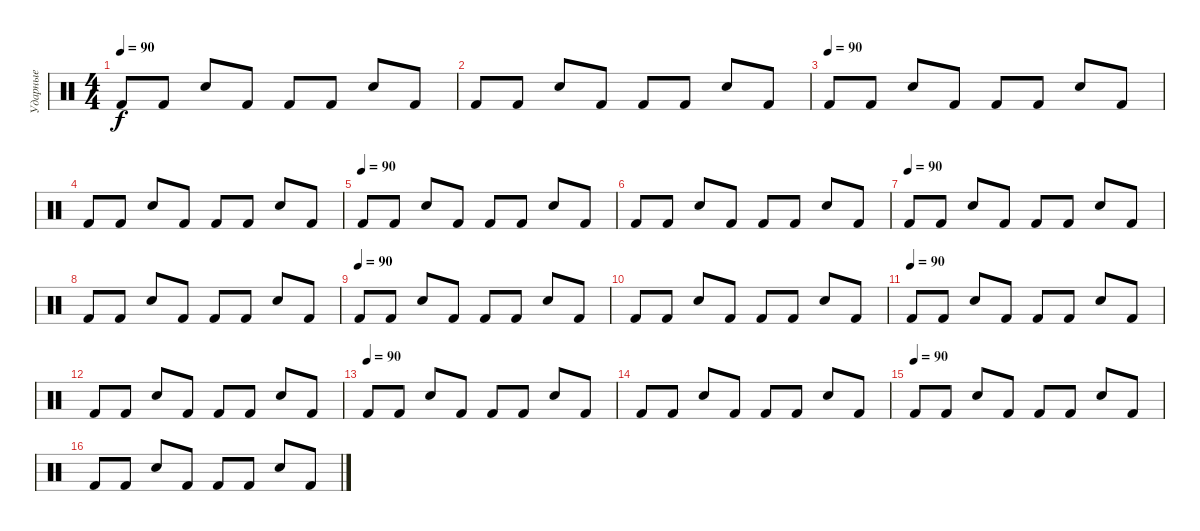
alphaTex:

\track ("Ударные" "Ударные") {instrument percussion}
\staff {score}
\articulation defaults
\ts (4 4)
\tempo 90
\clef neutral
\ks c "Kick (hit) 2".8{dy f} "Kick (hit) 2".8 "Snare (hit) 2".8 "Kick (hit) 2".8 "Kick (hit) 2".8 "Kick (hit) 2".8 "Snare (hit) 2".8 "Kick (hit) 2".8
|
"Kick (hit) 2".8 "Kick (hit) 2".8 "Snare (hit) 2".8 "Kick (hit) 2".8 "Kick (hit) 2".8 "Kick (hit) 2".8 "Snare (hit) 2".8 "Kick (hit) 2".8 |
\tempo (90)
"Kick (hit) 2".8 "Kick (hit) 2".8 "Snare (hit) 2".8 "Kick (hit) 2".8 "Kick (hit) 2".8 "Kick (hit) 2".8 "Snare (hit) 2".8 "Kick (hit) 2".8 |
"Kick (hit) 2".8 "Kick (hit) 2".8 "Snare (hit) 2".8 "Kick (hit) 2".8 "Kick (hit) 2".8 "Kick (hit) 2".8 "Snare (hit) 2".8 "Kick (hit) 2".8 |
\tempo (90)
"Kick (hit) 2".8 "Kick (hit) 2".8 "Snare (hit) 2".8 "Kick (hit) 2".8 "Kick (hit) 2".8 "Kick (hit) 2".8 "Snare (hit) 2".8 "Kick (hit) 2".8 |
"Kick (hit) 2".8 "Kick (hit) 2".8 "Snare (hit) 2".8 "Kick (hit) 2".8 "Kick (hit) 2".8 "Kick (hit) 2".8 "Snare (hit) 2".8 "Kick (hit) 2".8 |
\tempo (90)
"Kick (hit) 2".8 "Kick (hit) 2".8 "Snare (hit) 2".8 "Kick (hit) 2".8 "Kick (hit) 2".8 "Kick (hit) 2".8 "Snare (hit) 2".8 "Kick (hit) 2".8 |
"Kick (hit) 2".8 "Kick (hit) 2".8 "Snare (hit) 2".8 "Kick (hit) 2".8 "Kick (hit) 2".8 "Kick (hit) 2".8 "Snare (hit) 2".8 "Kick (hit) 2".8 |
\tempo (90)
"Kick (hit) 2".8 "Kick (hit) 2".8 "Snare (hit) 2".8 "Kick (hit) 2".8 "Kick (hit) 2".8 "Kick (hit) 2".8 "Snare (hit) 2".8 "Kick (hit) 2".8 |
"Kick (hit) 2".8 "Kick (hit) 2".8 "Snare (hit) 2".8 "Kick (hit) 2".8 "Kick (hit) 2".8 "Kick (hit) 2".8 "Snare (hit) 2".8 "Kick (hit) 2".8 |
\tempo (90)
"Kick (hit) 2".8 "Kick (hit) 2".8 "Snare (hit) 2".8 "Kick (hit) 2".8 "Kick (hit) 2".8 "Kick (hit) 2".8 "Snare (hit) 2".8 "Kick (hit) 2".8 |
"Kick (hit) 2".8 "Kick (hit) 2".8 "Snare (hit) 2".8 "Kick (hit) 2".8 "Kick (hit) 2".8 "Kick (hit) 2".8 "Snare (hit) 2".8 "Kick (hit) 2".8 |
\tempo (90)
"Kick (hit) 2".8 "Kick (hit) 2".8 "Snare (hit) 2".8 "Kick (hit) 2".8 "Kick (hit) 2".8 "Kick (hit) 2".8 "Snare (hit) 2".8 "Kick (hit) 2".8 |
"Kick (hit) 2".8 "Kick (hit) 2".8 "Snare (hit) 2".8 "Kick (hit) 2".8 "Kick (hit) 2".8 "Kick (hit) 2".8 "Snare (hit) 2".8 "Kick (hit) 2".8 |
\tempo (90)
"Kick (hit) 2".8 "Kick (hit) 2".8 "Snare (hit) 2".8 "Kick (hit) 2".8 "Kick (hit) 2".8 "Kick (hit) 2".8 "Snare (hit) 2".8 "Kick (hit) 2".8 |
"Kick (hit) 2".8 "Kick (hit) 2".8 "Snare (hit) 2".8 "Kick (hit) 2".8 "Kick (hit) 2".8 "Kick (hit) 2".8 "Snare (hit) 2".8 "Kick (hit) 2".8
